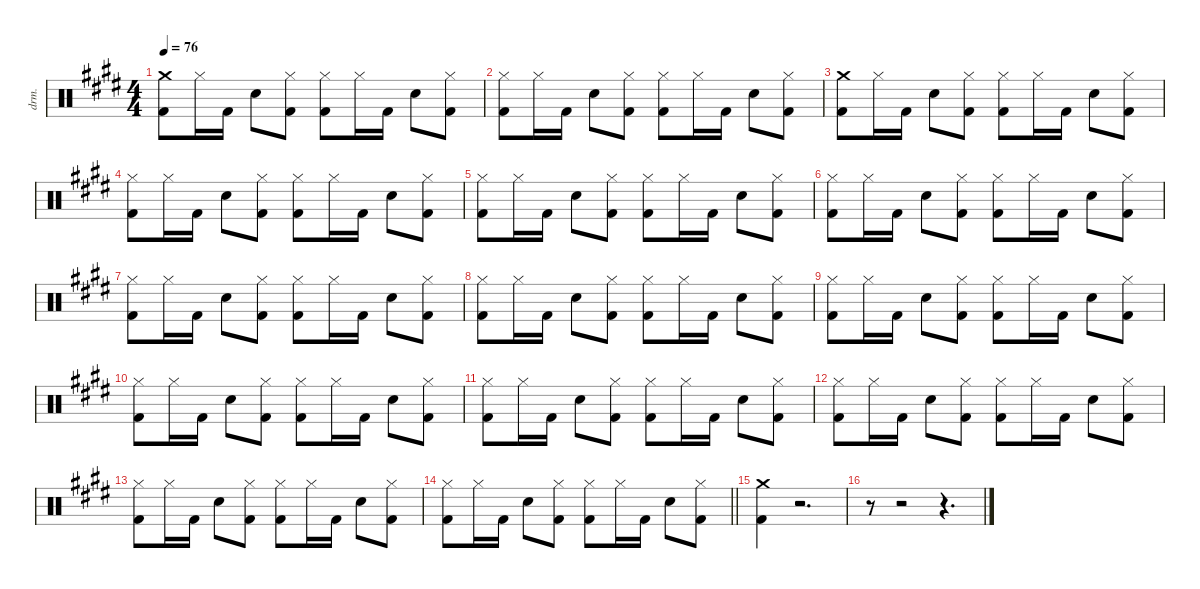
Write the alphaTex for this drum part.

\defaultSystemsLayout 4
\hideDynamics
\bracketExtendMode nobrackets
\otherSystemsTrackNameOrientation horizontal
\track ("Drums" "drm.") {instrument percussion}
\staff {score}
\articulation defaults
\ts (4 4)
\tempo 76
\clef neutral
\ks e
("Crash medium (hit)"{acc forcenatural} "Kick (hit) 2"{acc forcenatural}).8{dy f beam Down} "Hi-Hat (closed)"{acc forcenatural}.16{beam Down} "Kick (hit) 2"{acc forcenatural}.16{beam Down} "Snare (hit) 2"{acc forcenatural}.8{beam Down} ("Hi-Hat (closed)"{acc forcenatural} "Kick (hit) 2"{acc forcenatural}).8{beam Down} ("Hi-Hat (closed)"{acc forcenatural} "Kick (hit) 2"{acc forcenatural}).8{beam Down} "Hi-Hat (closed)"{acc forcenatural}.16{beam Down} "Kick (hit) 2"{acc forcenatural}.16{beam Down} "Snare (hit) 2"{acc forcenatural}.8{beam Down} ("Hi-Hat (closed)"{acc forcenatural} "Kick (hit) 2"{acc forcenatural}).8{beam Down} |
("Hi-Hat (closed)"{acc forcenatural} "Kick (hit) 2"{acc forcenatural}).8{beam Down} "Hi-Hat (closed)"{acc forcenatural}.16{beam Down} "Kick (hit) 2"{acc forcenatural}.16{beam Down} "Snare (hit) 2"{acc forcenatural}.8{beam Down} ("Hi-Hat (closed)"{acc forcenatural} "Kick (hit) 2"{acc forcenatural}).8{beam Down} ("Hi-Hat (closed)"{acc forcenatural} "Kick (hit) 2"{acc forcenatural}).8{beam Down} "Hi-Hat (closed)"{acc forcenatural}.16{beam Down} "Kick (hit) 2"{acc forcenatural}.16{beam Down} "Snare (hit) 2"{acc forcenatural}.8{beam Down} ("Hi-Hat (closed)"{acc forcenatural} "Kick (hit) 2"{acc forcenatural}).8{beam Down} |
("Crash medium (hit)"{acc forcenatural} "Kick (hit) 2"{acc forcenatural}).8{beam Down} "Hi-Hat (closed)"{acc forcenatural}.16{beam Down} "Kick (hit) 2"{acc forcenatural}.16{beam Down} "Snare (hit) 2"{acc forcenatural}.8{beam Down} ("Hi-Hat (closed)"{acc forcenatural} "Kick (hit) 2"{acc forcenatural}).8{beam Down} ("Hi-Hat (closed)"{acc forcenatural} "Kick (hit) 2"{acc forcenatural}).8{beam Down} "Hi-Hat (closed)"{acc forcenatural}.16{beam Down} "Kick (hit) 2"{acc forcenatural}.16{beam Down} "Snare (hit) 2"{acc forcenatural}.8{beam Down} ("Hi-Hat (closed)"{acc forcenatural} "Kick (hit) 2"{acc forcenatural}).8{beam Down} |
("Hi-Hat (closed)"{acc forcenatural} "Kick (hit) 2"{acc forcenatural}).8{beam Down} "Hi-Hat (closed)"{acc forcenatural}.16{beam Down} "Kick (hit) 2"{acc forcenatural}.16{beam Down} "Snare (hit) 2"{acc forcenatural}.8{beam Down} ("Hi-Hat (closed)"{acc forcenatural} "Kick (hit) 2"{acc forcenatural}).8{beam Down} ("Hi-Hat (closed)"{acc forcenatural} "Kick (hit) 2"{acc forcenatural}).8{beam Down} "Hi-Hat (closed)"{acc forcenatural}.16{beam Down} "Kick (hit) 2"{acc forcenatural}.16{beam Down} "Snare (hit) 2"{acc forcenatural}.8{beam Down} ("Hi-Hat (closed)"{acc forcenatural} "Kick (hit) 2"{acc forcenatural}).8{beam Down} |
("Hi-Hat (closed)"{acc forcenatural} "Kick (hit) 2"{acc forcenatural}).8{beam Down} "Hi-Hat (closed)"{acc forcenatural}.16{beam Down} "Kick (hit) 2"{acc forcenatural}.16{beam Down} "Snare (hit) 2"{acc forcenatural}.8{beam Down} ("Hi-Hat (closed)"{acc forcenatural} "Kick (hit) 2"{acc forcenatural}).8{beam Down} ("Hi-Hat (closed)"{acc forcenatural} "Kick (hit) 2"{acc forcenatural}).8{beam Down} "Hi-Hat (closed)"{acc forcenatural}.16{beam Down} "Kick (hit) 2"{acc forcenatural}.16{beam Down} "Snare (hit) 2"{acc forcenatural}.8{beam Down} ("Hi-Hat (closed)"{acc forcenatural} "Kick (hit) 2"{acc forcenatural}).8{beam Down} |
("Hi-Hat (closed)"{acc forcenatural} "Kick (hit) 2"{acc forcenatural}).8{beam Down} "Hi-Hat (closed)"{acc forcenatural}.16{beam Down} "Kick (hit) 2"{acc forcenatural}.16{beam Down} "Snare (hit) 2"{acc forcenatural}.8{beam Down} ("Hi-Hat (closed)"{acc forcenatural} "Kick (hit) 2"{acc forcenatural}).8{beam Down} ("Hi-Hat (closed)"{acc forcenatural} "Kick (hit) 2"{acc forcenatural}).8{beam Down} "Hi-Hat (closed)"{acc forcenatural}.16{beam Down} "Kick (hit) 2"{acc forcenatural}.16{beam Down} "Snare (hit) 2"{acc forcenatural}.8{beam Down} ("Hi-Hat (closed)"{acc forcenatural} "Kick (hit) 2"{acc forcenatural}).8{beam Down} |
("Hi-Hat (closed)"{acc forcenatural} "Kick (hit) 2"{acc forcenatural}).8{beam Down} "Hi-Hat (closed)"{acc forcenatural}.16{beam Down} "Kick (hit) 2"{acc forcenatural}.16{beam Down} "Snare (hit) 2"{acc forcenatural}.8{beam Down} ("Hi-Hat (closed)"{acc forcenatural} "Kick (hit) 2"{acc forcenatural}).8{beam Down} ("Hi-Hat (closed)"{acc forcenatural} "Kick (hit) 2"{acc forcenatural}).8{beam Down} "Hi-Hat (closed)"{acc forcenatural}.16{beam Down} "Kick (hit) 2"{acc forcenatural}.16{beam Down} "Snare (hit) 2"{acc forcenatural}.8{beam Down} ("Hi-Hat (closed)"{acc forcenatural} "Kick (hit) 2"{acc forcenatural}).8{beam Down} |
("Hi-Hat (closed)"{acc forcenatural} "Kick (hit) 2"{acc forcenatural}).8{beam Down} "Hi-Hat (closed)"{acc forcenatural}.16{beam Down} "Kick (hit) 2"{acc forcenatural}.16{beam Down} "Snare (hit) 2"{acc forcenatural}.8{beam Down} ("Hi-Hat (closed)"{acc forcenatural} "Kick (hit) 2"{acc forcenatural}).8{beam Down} ("Hi-Hat (closed)"{acc forcenatural} "Kick (hit) 2"{acc forcenatural}).8{beam Down} "Hi-Hat (closed)"{acc forcenatural}.16{beam Down} "Kick (hit) 2"{acc forcenatural}.16{beam Down} "Snare (hit) 2"{acc forcenatural}.8{beam Down} ("Hi-Hat (closed)"{acc forcenatural} "Kick (hit) 2"{acc forcenatural}).8{beam Down} |
("Hi-Hat (closed)"{acc forcenatural} "Kick (hit) 2"{acc forcenatural}).8{beam Down} "Hi-Hat (closed)"{acc forcenatural}.16{beam Down} "Kick (hit) 2"{acc forcenatural}.16{beam Down} "Snare (hit) 2"{acc forcenatural}.8{beam Down} ("Hi-Hat (closed)"{acc forcenatural} "Kick (hit) 2"{acc forcenatural}).8{beam Down} ("Hi-Hat (closed)"{acc forcenatural} "Kick (hit) 2"{acc forcenatural}).8{beam Down} "Hi-Hat (closed)"{acc forcenatural}.16{beam Down} "Kick (hit) 2"{acc forcenatural}.16{beam Down} "Snare (hit) 2"{acc forcenatural}.8{beam Down} ("Hi-Hat (closed)"{acc forcenatural} "Kick (hit) 2"{acc forcenatural}).8{beam Down} |
("Hi-Hat (closed)"{acc forcenatural} "Kick (hit) 2"{acc forcenatural}).8{beam Down} "Hi-Hat (closed)"{acc forcenatural}.16{beam Down} "Kick (hit) 2"{acc forcenatural}.16{beam Down} "Snare (hit) 2"{acc forcenatural}.8{beam Down} ("Hi-Hat (closed)"{acc forcenatural} "Kick (hit) 2"{acc forcenatural}).8{beam Down} ("Hi-Hat (closed)"{acc forcenatural} "Kick (hit) 2"{acc forcenatural}).8{beam Down} "Hi-Hat (closed)"{acc forcenatural}.16{beam Down} "Kick (hit) 2"{acc forcenatural}.16{beam Down} "Snare (hit) 2"{acc forcenatural}.8{beam Down} ("Hi-Hat (closed)"{acc forcenatural} "Kick (hit) 2"{acc forcenatural}).8{beam Down} |
("Hi-Hat (closed)"{acc forcenatural} "Kick (hit) 2"{acc forcenatural}).8{beam Down} "Hi-Hat (closed)"{acc forcenatural}.16{beam Down} "Kick (hit) 2"{acc forcenatural}.16{beam Down} "Snare (hit) 2"{acc forcenatural}.8{beam Down} ("Hi-Hat (closed)"{acc forcenatural} "Kick (hit) 2"{acc forcenatural}).8{beam Down} ("Hi-Hat (closed)"{acc forcenatural} "Kick (hit) 2"{acc forcenatural}).8{beam Down} "Hi-Hat (closed)"{acc forcenatural}.16{beam Down} "Kick (hit) 2"{acc forcenatural}.16{beam Down} "Snare (hit) 2"{acc forcenatural}.8{beam Down} ("Hi-Hat (closed)"{acc forcenatural} "Kick (hit) 2"{acc forcenatural}).8{beam Down} |
("Hi-Hat (closed)"{acc forcenatural} "Kick (hit) 2"{acc forcenatural}).8{beam Down} "Hi-Hat (closed)"{acc forcenatural}.16{beam Down} "Kick (hit) 2"{acc forcenatural}.16{beam Down} "Snare (hit) 2"{acc forcenatural}.8{beam Down} ("Hi-Hat (closed)"{acc forcenatural} "Kick (hit) 2"{acc forcenatural}).8{beam Down} ("Hi-Hat (closed)"{acc forcenatural} "Kick (hit) 2"{acc forcenatural}).8{beam Down} "Hi-Hat (closed)"{acc forcenatural}.16{beam Down} "Kick (hit) 2"{acc forcenatural}.16{beam Down} "Snare (hit) 2"{acc forcenatural}.8{beam Down} ("Hi-Hat (closed)"{acc forcenatural} "Kick (hit) 2"{acc forcenatural}).8{beam Down} |
("Hi-Hat (closed)"{acc forcenatural} "Kick (hit) 2"{acc forcenatural}).8{beam Down} "Hi-Hat (closed)"{acc forcenatural}.16{beam Down} "Kick (hit) 2"{acc forcenatural}.16{beam Down} "Snare (hit) 2"{acc forcenatural}.8{beam Down} ("Hi-Hat (closed)"{acc forcenatural} "Kick (hit) 2"{acc forcenatural}).8{beam Down} ("Hi-Hat (closed)"{acc forcenatural} "Kick (hit) 2"{acc forcenatural}).8{beam Down} "Hi-Hat (closed)"{acc forcenatural}.16{beam Down} "Kick (hit) 2"{acc forcenatural}.16{beam Down} "Snare (hit) 2"{acc forcenatural}.8{beam Down} ("Hi-Hat (closed)"{acc forcenatural} "Kick (hit) 2"{acc forcenatural}).8{beam Down} |
\barLineRight lightlight
("Hi-Hat (closed)"{acc forcenatural} "Kick (hit) 2"{acc forcenatural}).8{beam Down} "Hi-Hat (closed)"{acc forcenatural}.16{beam Down} "Kick (hit) 2"{acc forcenatural}.16{beam Down} "Snare (hit) 2"{acc forcenatural}.8{beam Down} ("Hi-Hat (closed)"{acc forcenatural} "Kick (hit) 2"{acc forcenatural}).8{beam Down} ("Hi-Hat (closed)"{acc forcenatural} "Kick (hit) 2"{acc forcenatural}).8{beam Down} "Hi-Hat (closed)"{acc forcenatural}.16{beam Down} "Kick (hit) 2"{acc forcenatural}.16{beam Down} "Snare (hit) 2"{acc forcenatural}.8{beam Down} ("Hi-Hat (closed)"{acc forcenatural} "Kick (hit) 2"{acc forcenatural}).8{beam Down} |
("Crash medium (hit)"{acc forcenatural} "Kick (hit) 2"{acc forcenatural}).4{beam Down} r.2{d beam Down} |
r.8{beam Down} r.2{beam Down} r.4{d beam Down}
